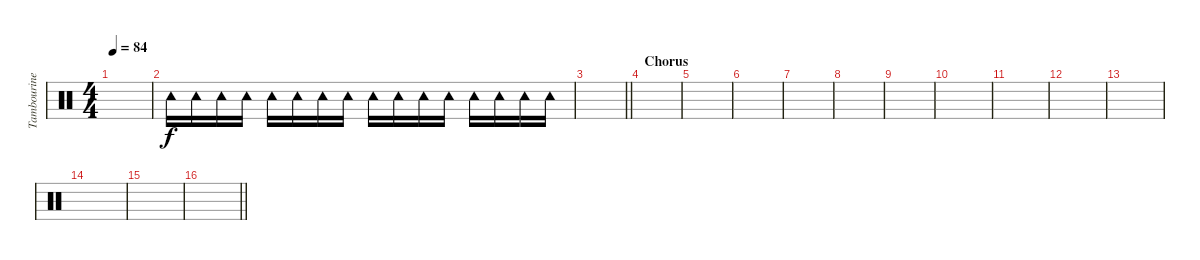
\track ("Tambourine" "Tambourine") {instrument percussion}
\staff {score}
\articulation defaults
\ts (4 4)
\tempo 84
\clef neutral
\ks c
|
"Tambourine (hit)".16 "Tambourine (hit)".16 "Tambourine (hit)".16 "Tambourine (hit)".16 "Tambourine (hit)".16 "Tambourine (hit)".16 "Tambourine (hit)".16 "Tambourine (hit)".16 "Tambourine (hit)".16 "Tambourine (hit)".16 "Tambourine (hit)".16 "Tambourine (hit)".16 "Tambourine (hit)".16 "Tambourine (hit)".16 "Tambourine (hit)".16 "Tambourine (hit)".16 |
\barLineRight lightlight
|
\section ("" "Chorus")
|
|
|
|
|
|
|
|
|
|
|
|
\barLineRight lightlight
